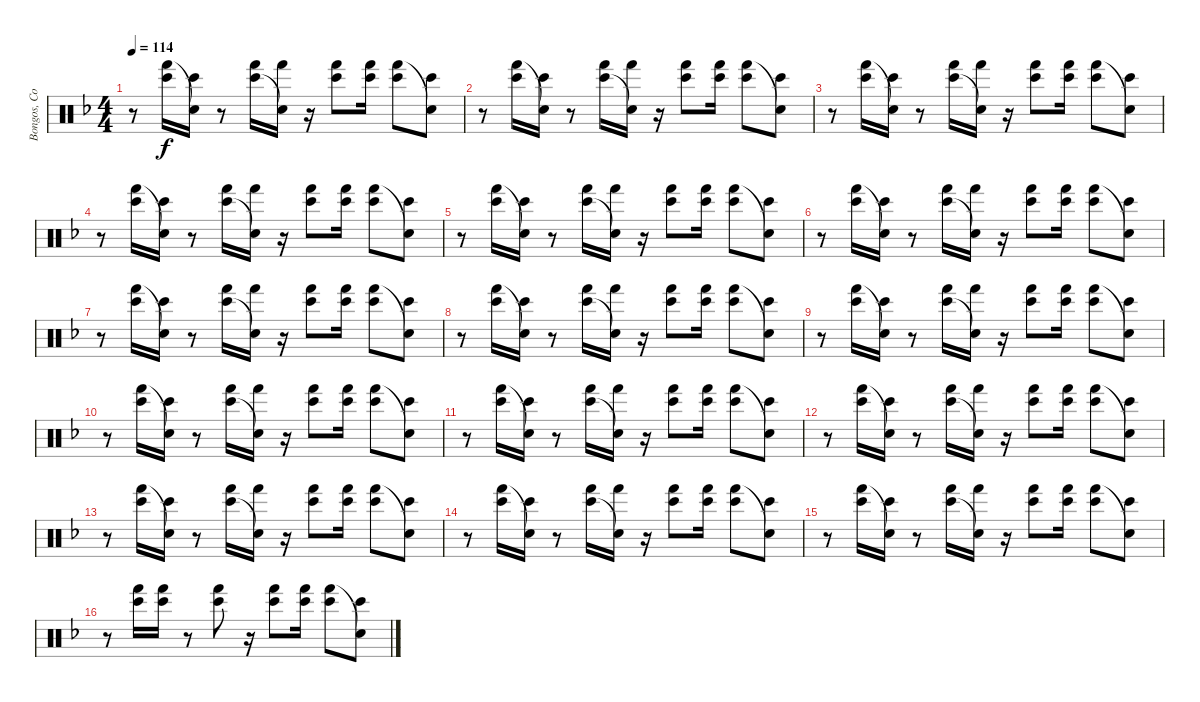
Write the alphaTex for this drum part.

\track ("Bongos, Congas, Timbales" "Bongos, Co") {instrument percussion}
\staff {score}
\articulation defaults
\ts (4 4)
\tempo 114
\clef neutral
\ks f
r.8{dy f} ("Bongo High (hit)" "Hand (hit)").16 ("Bongo High (hit)" "Snare (hit)"{t}).16 r.8 ("Bongo High (hit)" "Hand (hit)").16 ("Snare (hit)"{t} "Hand (hit)").16 r.16 ("Bongo High (hit)" "Hand (hit)").8 ("Bongo High (hit)" "Hand (hit)").16 ("Bongo High (hit)" "Hand (hit)").8 ("Bongo High (hit)" "Snare (hit)"{t}).8 |
r.8 ("Bongo High (hit)" "Hand (hit)").16 ("Bongo High (hit)" "Snare (hit)"{t}).16 r.8 ("Bongo High (hit)" "Hand (hit)").16 ("Snare (hit)"{t} "Hand (hit)").16 r.16 ("Bongo High (hit)" "Hand (hit)").8 ("Bongo High (hit)" "Hand (hit)").16 ("Bongo High (hit)" "Hand (hit)").8 ("Bongo High (hit)" "Snare (hit)"{t}).8 |
r.8 ("Bongo High (hit)" "Hand (hit)").16 ("Bongo High (hit)" "Snare (hit)"{t}).16 r.8 ("Bongo High (hit)" "Hand (hit)").16 ("Snare (hit)"{t} "Hand (hit)").16 r.16 ("Bongo High (hit)" "Hand (hit)").8 ("Bongo High (hit)" "Hand (hit)").16 ("Bongo High (hit)" "Hand (hit)").8 ("Bongo High (hit)" "Snare (hit)"{t}).8 |
r.8 ("Bongo High (hit)" "Hand (hit)").16 ("Bongo High (hit)" "Snare (hit)"{t}).16 r.8 ("Bongo High (hit)" "Hand (hit)").16 ("Snare (hit)"{t} "Hand (hit)").16 r.16 ("Bongo High (hit)" "Hand (hit)").8 ("Bongo High (hit)" "Hand (hit)").16 ("Bongo High (hit)" "Hand (hit)").8 ("Bongo High (hit)" "Snare (hit)"{t}).8 |
r.8 ("Bongo High (hit)" "Hand (hit)").16 ("Bongo High (hit)" "Snare (hit)"{t}).16 r.8 ("Bongo High (hit)" "Hand (hit)").16 ("Snare (hit)"{t} "Hand (hit)").16 r.16 ("Bongo High (hit)" "Hand (hit)").8 ("Bongo High (hit)" "Hand (hit)").16 ("Bongo High (hit)" "Hand (hit)").8 ("Bongo High (hit)" "Snare (hit)"{t}).8 |
r.8 ("Bongo High (hit)" "Hand (hit)").16 ("Bongo High (hit)" "Snare (hit)"{t}).16 r.8 ("Bongo High (hit)" "Hand (hit)").16 ("Snare (hit)"{t} "Hand (hit)").16 r.16 ("Bongo High (hit)" "Hand (hit)").8 ("Bongo High (hit)" "Hand (hit)").16 ("Bongo High (hit)" "Hand (hit)").8 ("Bongo High (hit)" "Snare (hit)"{t}).8 |
r.8 ("Bongo High (hit)" "Hand (hit)").16 ("Bongo High (hit)" "Snare (hit)"{t}).16 r.8 ("Bongo High (hit)" "Hand (hit)").16 ("Snare (hit)"{t} "Hand (hit)").16 r.16 ("Bongo High (hit)" "Hand (hit)").8 ("Bongo High (hit)" "Hand (hit)").16 ("Bongo High (hit)" "Hand (hit)").8 ("Bongo High (hit)" "Snare (hit)"{t}).8 |
r.8 ("Bongo High (hit)" "Hand (hit)").16 ("Bongo High (hit)" "Snare (hit)"{t}).16 r.8 ("Bongo High (hit)" "Hand (hit)").16 ("Snare (hit)"{t} "Hand (hit)").16 r.16 ("Bongo High (hit)" "Hand (hit)").8 ("Bongo High (hit)" "Hand (hit)").16 ("Bongo High (hit)" "Hand (hit)").8 ("Bongo High (hit)" "Snare (hit)"{t}).8 |
r.8 ("Bongo High (hit)" "Hand (hit)").16 ("Bongo High (hit)" "Snare (hit)"{t}).16 r.8 ("Bongo High (hit)" "Hand (hit)").16 ("Snare (hit)"{t} "Hand (hit)").16 r.16 ("Bongo High (hit)" "Hand (hit)").8 ("Bongo High (hit)" "Hand (hit)").16 ("Bongo High (hit)" "Hand (hit)").8 ("Bongo High (hit)" "Snare (hit)"{t}).8 |
r.8 ("Bongo High (hit)" "Hand (hit)").16 ("Bongo High (hit)" "Snare (hit)"{t}).16 r.8 ("Bongo High (hit)" "Hand (hit)").16 ("Snare (hit)"{t} "Hand (hit)").16 r.16 ("Bongo High (hit)" "Hand (hit)").8 ("Bongo High (hit)" "Hand (hit)").16 ("Bongo High (hit)" "Hand (hit)").8 ("Bongo High (hit)" "Snare (hit)"{t}).8 |
r.8 ("Bongo High (hit)" "Hand (hit)").16 ("Bongo High (hit)" "Snare (hit)"{t}).16 r.8 ("Bongo High (hit)" "Hand (hit)").16 ("Snare (hit)"{t} "Hand (hit)").16 r.16 ("Bongo High (hit)" "Hand (hit)").8 ("Bongo High (hit)" "Hand (hit)").16 ("Bongo High (hit)" "Hand (hit)").8 ("Bongo High (hit)" "Snare (hit)"{t}).8 |
r.8 ("Bongo High (hit)" "Hand (hit)").16 ("Bongo High (hit)" "Snare (hit)"{t}).16 r.8 ("Bongo High (hit)" "Hand (hit)").16 ("Snare (hit)"{t} "Hand (hit)").16 r.16 ("Bongo High (hit)" "Hand (hit)").8 ("Bongo High (hit)" "Hand (hit)").16 ("Bongo High (hit)" "Hand (hit)").8 ("Bongo High (hit)" "Snare (hit)"{t}).8 |
r.8 ("Bongo High (hit)" "Hand (hit)").16 ("Bongo High (hit)" "Snare (hit)"{t}).16 r.8 ("Bongo High (hit)" "Hand (hit)").16 ("Snare (hit)"{t} "Hand (hit)").16 r.16 ("Bongo High (hit)" "Hand (hit)").8 ("Bongo High (hit)" "Hand (hit)").16 ("Bongo High (hit)" "Hand (hit)").8 ("Bongo High (hit)" "Snare (hit)"{t}).8 |
r.8 ("Bongo High (hit)" "Hand (hit)").16 ("Bongo High (hit)" "Snare (hit)"{t}).16 r.8 ("Bongo High (hit)" "Hand (hit)").16 ("Snare (hit)"{t} "Hand (hit)").16 r.16 ("Bongo High (hit)" "Hand (hit)").8 ("Bongo High (hit)" "Hand (hit)").16 ("Bongo High (hit)" "Hand (hit)").8 ("Bongo High (hit)" "Snare (hit)"{t}).8 |
r.8 ("Bongo High (hit)" "Hand (hit)").16 ("Bongo High (hit)" "Snare (hit)"{t}).16 r.8 ("Bongo High (hit)" "Hand (hit)").16 ("Snare (hit)"{t} "Hand (hit)").16 r.16 ("Bongo High (hit)" "Hand (hit)").8 ("Bongo High (hit)" "Hand (hit)").16 ("Bongo High (hit)" "Hand (hit)").8 ("Bongo High (hit)" "Snare (hit)"{t}).8 |
r.8 ("Bongo High (hit)" "Hand (hit)").16 ("Bongo High (hit)" "Hand (hit)").16 r.8 ("Bongo High (hit)" "Hand (hit)").8 r.16 ("Bongo High (hit)" "Hand (hit)").8 ("Bongo High (hit)" "Hand (hit)").16 ("Bongo High (hit)" "Hand (hit)").8 ("Bongo High (hit)" "Snare (hit)"{t}).8
